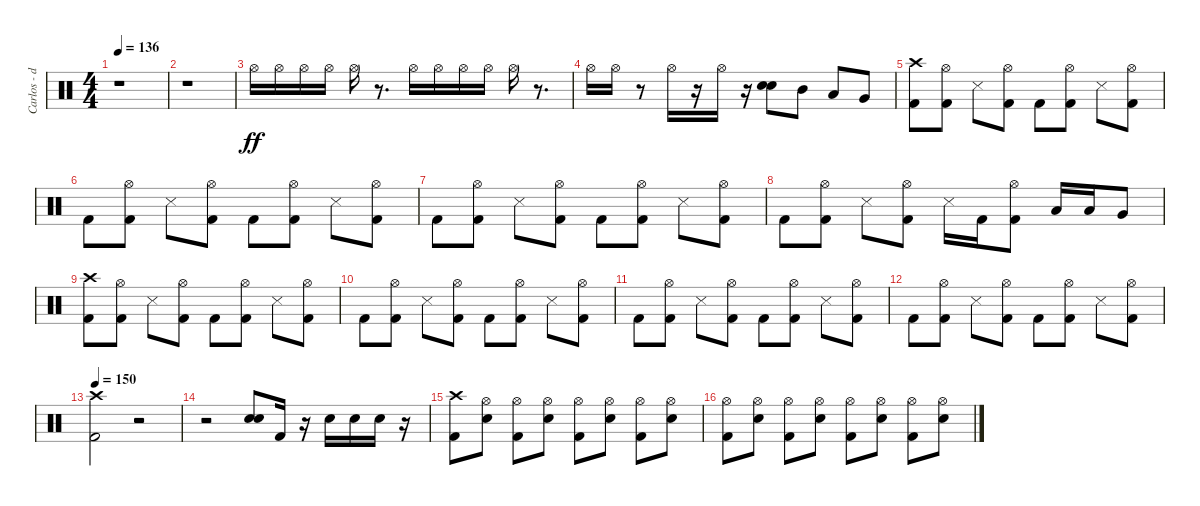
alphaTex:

\track ("Carlos - drums" "Carlos - d") {instrument percussion}
\staff {score}
\articulation defaults
\ts (4 4)
\tempo 136
\clef neutral
\ks c
r.1{dy ff} |
r.1 |
"Hi-Hat (open)".16 "Hi-Hat (open)".16 "Hi-Hat (open)".16 "Hi-Hat (open)".16 "Hi-Hat (open)".16 r.8{d} "Hi-Hat (open)".16 "Hi-Hat (open)".16 "Hi-Hat (open)".16 "Hi-Hat (open)".16 "Hi-Hat (open)".16 r.8{d} |
"Hi-Hat (open)".16 "Hi-Hat (open)".16 r.8 "Hi-Hat (open)".16 r.16 "Hi-Hat (open)".16 r.16 ("Electric Snare (hit)" "Electric Snare (hit)").8 "Mid Tom (hit)".8 "Low Tom (hit)".8 "Very Low Tom (hit)".8 |
("Kick (hit) 2" "Crash high (hit)").8 ("Hi-Hat (open)" "Kick (hit) 2").8 "Snare (side stick) 3".8 ("Hi-Hat (open)" "Kick (hit) 2").8 "Kick (hit) 2".8 ("Hi-Hat (open)" "Kick (hit) 2").8 "Snare (side stick) 3".8 ("Hi-Hat (open)" "Kick (hit) 2").8 |
"Kick (hit) 2".8 ("Hi-Hat (open)" "Kick (hit) 2").8 "Snare (side stick) 3".8 ("Hi-Hat (open)" "Kick (hit) 2").8 "Kick (hit) 2".8 ("Hi-Hat (open)" "Kick (hit) 2").8 "Snare (side stick) 3".8 ("Hi-Hat (open)" "Kick (hit) 2").8 |
"Kick (hit) 2".8 ("Hi-Hat (open)" "Kick (hit) 2").8 "Snare (side stick) 3".8 ("Hi-Hat (open)" "Kick (hit) 2").8 "Kick (hit) 2".8 ("Hi-Hat (open)" "Kick (hit) 2").8 "Snare (side stick) 3".8 ("Hi-Hat (open)" "Kick (hit) 2").8 |
"Kick (hit) 2".8 ("Hi-Hat (open)" "Kick (hit) 2").8 "Snare (side stick) 3".8 ("Hi-Hat (open)" "Kick (hit) 2").8 "Snare (side stick) 3".16 "Kick (hit) 2".16 ("Kick (hit) 2" "Hi-Hat (open)").8 "Low Tom (hit)".16 "Low Tom (hit)".16 "Very Low Tom (hit)".8 |
("Kick (hit) 2" "Crash high (hit)").8 ("Hi-Hat (open)" "Kick (hit) 2").8 "Snare (side stick) 3".8 ("Hi-Hat (open)" "Kick (hit) 2").8 "Kick (hit) 2".8 ("Hi-Hat (open)" "Kick (hit) 2").8 "Snare (side stick) 3".8 ("Hi-Hat (open)" "Kick (hit) 2").8 |
"Kick (hit) 2".8 ("Hi-Hat (open)" "Kick (hit) 2").8 "Snare (side stick) 3".8 ("Hi-Hat (open)" "Kick (hit) 2").8 "Kick (hit) 2".8 ("Hi-Hat (open)" "Kick (hit) 2").8 "Snare (side stick) 3".8 ("Hi-Hat (open)" "Kick (hit) 2").8 |
"Kick (hit) 2".8 ("Hi-Hat (open)" "Kick (hit) 2").8 "Snare (side stick) 3".8 ("Hi-Hat (open)" "Kick (hit) 2").8 "Kick (hit) 2".8 ("Hi-Hat (open)" "Kick (hit) 2").8 "Snare (side stick) 3".8 ("Hi-Hat (open)" "Kick (hit) 2").8 |
"Kick (hit) 2".8 ("Hi-Hat (open)" "Kick (hit) 2").8 "Snare (side stick) 3".8 ("Hi-Hat (open)" "Kick (hit) 2").8 "Kick (hit) 2".8 ("Hi-Hat (open)" "Kick (hit) 2").8 "Snare (side stick) 3".8 ("Hi-Hat (open)" "Kick (hit) 2").8 |
\tempo 150
("Kick (hit) 2" "Crash high (hit)").2 r.2 |
r.2 ("Electric Snare (hit)" "Electric Snare (hit)").8 "Kick (hit) 2".16 r.16 "Electric Snare (hit)".16 "Electric Snare (hit)".16 "Electric Snare (hit)".16 r.16 |
("Kick (hit) 2" "Crash high (hit)").8 ("Electric Snare (hit)" "Hi-Hat (open)").8 ("Kick (hit) 2" "Hi-Hat (open)").8 ("Electric Snare (hit)" "Hi-Hat (open)").8 ("Kick (hit) 2" "Hi-Hat (open)").8 ("Electric Snare (hit)" "Hi-Hat (open)").8 ("Kick (hit) 2" "Hi-Hat (open)").8 ("Electric Snare (hit)" "Hi-Hat (open)").8 |
("Kick (hit) 2" "Hi-Hat (open)").8 ("Electric Snare (hit)" "Hi-Hat (open)").8 ("Kick (hit) 2" "Hi-Hat (open)").8 ("Electric Snare (hit)" "Hi-Hat (open)").8 ("Kick (hit) 2" "Hi-Hat (open)").8 ("Electric Snare (hit)" "Hi-Hat (open)").8 ("Kick (hit) 2" "Hi-Hat (open)").8 ("Electric Snare (hit)" "Hi-Hat (open)").8
